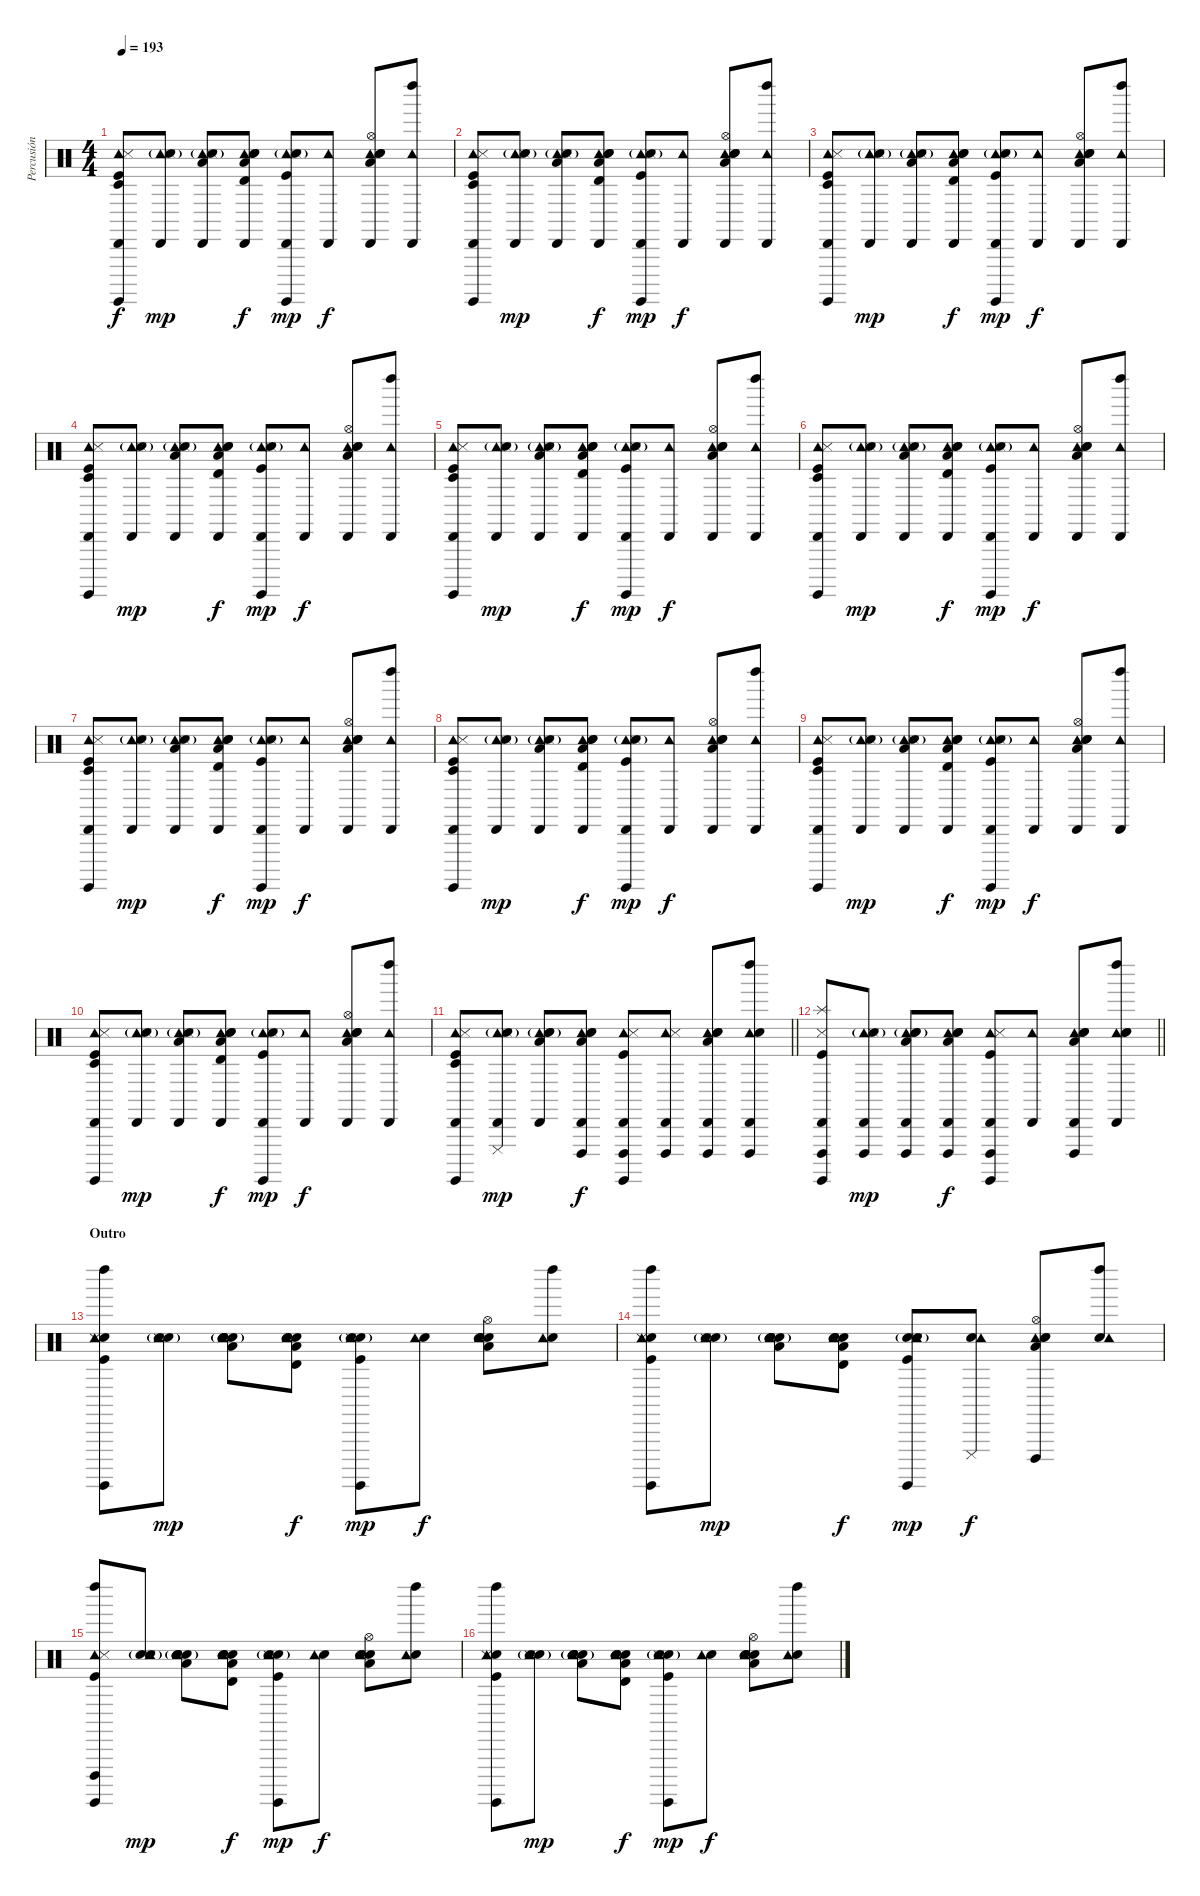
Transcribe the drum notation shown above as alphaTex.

\track ("Percusión" "Percusión") {instrument percussion}
\staff {score}
\articulation defaults
\ts (4 4)
\tempo 193
\clef neutral
\ks c
("Cabasa (hit)" "Tambourine (hit)" "Timbale low (hit)" "Metronome (hit)" "Surdo (hit)" "Kick (hit)").8{dy f} ("Cabasa (hit)" "Tambourine (hit)" "Hand Clap (hit)"{g} "Metronome (hit)").8{dy mp} ("Cabasa (hit)" "Tambourine (hit)" "Hand Clap (hit)"{g} "Metronome (hit)" "Low Tom (hit)").8 ("Cabasa (hit)" "Tambourine (hit)" "Timbale high (hit)" "Snare (hit) 2" "Low Tom (hit)" "Electric Snare (hit)").8{dy f} ("Cabasa (hit)" "Tambourine (hit)" "Hand Clap (hit)"{g} "Metronome (hit)" "Surdo (hit)" "Kick (hit)").8{dy mp} ("Cabasa (hit)" "Tambourine (hit)").8{dy f} ("Cabasa (hit)" "Tambourine (hit)" "Hi-Hat (open)" "Snare (hit) 2" "Low Tom (hit)" "Electric Snare (hit)").8 ("Cabasa (hit)" "Tambourine (hit)" "Left Maraca (hit)").8 |
("Cabasa (hit)" "Tambourine (hit)" "Timbale low (hit)" "Metronome (hit)" "Surdo (hit)" "Kick (hit)").8 ("Cabasa (hit)" "Tambourine (hit)" "Hand Clap (hit)"{g} "Metronome (hit)").8{dy mp} ("Cabasa (hit)" "Tambourine (hit)" "Hand Clap (hit)"{g} "Metronome (hit)" "Low Tom (hit)").8 ("Cabasa (hit)" "Tambourine (hit)" "Timbale high (hit)" "Snare (hit) 2" "Low Tom (hit)" "Electric Snare (hit)").8{dy f} ("Cabasa (hit)" "Tambourine (hit)" "Hand Clap (hit)"{g} "Metronome (hit)" "Surdo (hit)" "Kick (hit)").8{dy mp} ("Cabasa (hit)" "Tambourine (hit)").8{dy f} ("Cabasa (hit)" "Tambourine (hit)" "Hi-Hat (open)" "Snare (hit) 2" "Low Tom (hit)" "Electric Snare (hit)").8 ("Cabasa (hit)" "Tambourine (hit)" "Left Maraca (hit)").8 |
("Cabasa (hit)" "Tambourine (hit)" "Timbale low (hit)" "Metronome (hit)" "Surdo (hit)" "Kick (hit)").8 ("Cabasa (hit)" "Tambourine (hit)" "Hand Clap (hit)"{g} "Metronome (hit)").8{dy mp} ("Cabasa (hit)" "Tambourine (hit)" "Hand Clap (hit)"{g} "Metronome (hit)" "Low Tom (hit)").8 ("Cabasa (hit)" "Tambourine (hit)" "Timbale high (hit)" "Snare (hit) 2" "Low Tom (hit)" "Electric Snare (hit)").8{dy f} ("Cabasa (hit)" "Tambourine (hit)" "Hand Clap (hit)"{g} "Metronome (hit)" "Surdo (hit)" "Kick (hit)").8{dy mp} ("Cabasa (hit)" "Tambourine (hit)").8{dy f} ("Cabasa (hit)" "Tambourine (hit)" "Hi-Hat (open)" "Snare (hit) 2" "Low Tom (hit)" "Electric Snare (hit)").8 ("Cabasa (hit)" "Tambourine (hit)" "Left Maraca (hit)").8 |
("Cabasa (hit)" "Tambourine (hit)" "Timbale low (hit)" "Metronome (hit)" "Surdo (hit)" "Kick (hit)").8 ("Cabasa (hit)" "Tambourine (hit)" "Hand Clap (hit)"{g} "Metronome (hit)").8{dy mp} ("Cabasa (hit)" "Tambourine (hit)" "Hand Clap (hit)"{g} "Metronome (hit)" "Low Tom (hit)").8 ("Cabasa (hit)" "Tambourine (hit)" "Timbale high (hit)" "Snare (hit) 2" "Low Tom (hit)" "Electric Snare (hit)").8{dy f} ("Cabasa (hit)" "Tambourine (hit)" "Hand Clap (hit)"{g} "Metronome (hit)" "Surdo (hit)" "Kick (hit)").8{dy mp} ("Cabasa (hit)" "Tambourine (hit)").8{dy f} ("Cabasa (hit)" "Tambourine (hit)" "Hi-Hat (open)" "Snare (hit) 2" "Low Tom (hit)" "Electric Snare (hit)").8 ("Cabasa (hit)" "Tambourine (hit)" "Left Maraca (hit)").8 |
("Cabasa (hit)" "Tambourine (hit)" "Timbale low (hit)" "Metronome (hit)" "Surdo (hit)" "Kick (hit)").8 ("Cabasa (hit)" "Tambourine (hit)" "Hand Clap (hit)"{g} "Metronome (hit)").8{dy mp} ("Cabasa (hit)" "Tambourine (hit)" "Hand Clap (hit)"{g} "Metronome (hit)" "Low Tom (hit)").8 ("Cabasa (hit)" "Tambourine (hit)" "Timbale high (hit)" "Snare (hit) 2" "Low Tom (hit)" "Electric Snare (hit)").8{dy f} ("Cabasa (hit)" "Tambourine (hit)" "Hand Clap (hit)"{g} "Metronome (hit)" "Surdo (hit)" "Kick (hit)").8{dy mp} ("Cabasa (hit)" "Tambourine (hit)").8{dy f} ("Cabasa (hit)" "Tambourine (hit)" "Hi-Hat (open)" "Snare (hit) 2" "Low Tom (hit)" "Electric Snare (hit)").8 ("Cabasa (hit)" "Tambourine (hit)" "Left Maraca (hit)").8 |
("Cabasa (hit)" "Tambourine (hit)" "Timbale low (hit)" "Metronome (hit)" "Surdo (hit)" "Kick (hit)").8 ("Cabasa (hit)" "Tambourine (hit)" "Hand Clap (hit)"{g} "Metronome (hit)").8{dy mp} ("Cabasa (hit)" "Tambourine (hit)" "Hand Clap (hit)"{g} "Metronome (hit)" "Low Tom (hit)").8 ("Cabasa (hit)" "Tambourine (hit)" "Timbale high (hit)" "Snare (hit) 2" "Low Tom (hit)" "Electric Snare (hit)").8{dy f} ("Cabasa (hit)" "Tambourine (hit)" "Hand Clap (hit)"{g} "Metronome (hit)" "Surdo (hit)" "Kick (hit)").8{dy mp} ("Cabasa (hit)" "Tambourine (hit)").8{dy f} ("Cabasa (hit)" "Tambourine (hit)" "Hi-Hat (open)" "Snare (hit) 2" "Low Tom (hit)" "Electric Snare (hit)").8 ("Cabasa (hit)" "Tambourine (hit)" "Left Maraca (hit)").8 |
("Cabasa (hit)" "Tambourine (hit)" "Timbale low (hit)" "Metronome (hit)" "Surdo (hit)" "Kick (hit)").8 ("Cabasa (hit)" "Tambourine (hit)" "Hand Clap (hit)"{g} "Metronome (hit)").8{dy mp} ("Cabasa (hit)" "Tambourine (hit)" "Hand Clap (hit)"{g} "Metronome (hit)" "Low Tom (hit)").8 ("Cabasa (hit)" "Tambourine (hit)" "Timbale high (hit)" "Snare (hit) 2" "Low Tom (hit)" "Electric Snare (hit)").8{dy f} ("Cabasa (hit)" "Tambourine (hit)" "Hand Clap (hit)"{g} "Metronome (hit)" "Surdo (hit)" "Kick (hit)").8{dy mp} ("Cabasa (hit)" "Tambourine (hit)").8{dy f} ("Cabasa (hit)" "Tambourine (hit)" "Hi-Hat (open)" "Snare (hit) 2" "Low Tom (hit)" "Electric Snare (hit)").8 ("Cabasa (hit)" "Tambourine (hit)" "Left Maraca (hit)").8 |
("Cabasa (hit)" "Tambourine (hit)" "Timbale low (hit)" "Metronome (hit)" "Surdo (hit)" "Kick (hit)").8 ("Cabasa (hit)" "Tambourine (hit)" "Hand Clap (hit)"{g} "Metronome (hit)").8{dy mp} ("Cabasa (hit)" "Tambourine (hit)" "Hand Clap (hit)"{g} "Metronome (hit)" "Low Tom (hit)").8 ("Cabasa (hit)" "Tambourine (hit)" "Timbale high (hit)" "Snare (hit) 2" "Low Tom (hit)" "Electric Snare (hit)").8{dy f} ("Cabasa (hit)" "Tambourine (hit)" "Hand Clap (hit)"{g} "Metronome (hit)" "Surdo (hit)" "Kick (hit)").8{dy mp} ("Cabasa (hit)" "Tambourine (hit)").8{dy f} ("Cabasa (hit)" "Tambourine (hit)" "Hi-Hat (open)" "Snare (hit) 2" "Low Tom (hit)" "Electric Snare (hit)").8 ("Cabasa (hit)" "Tambourine (hit)" "Left Maraca (hit)").8 |
("Cabasa (hit)" "Tambourine (hit)" "Timbale low (hit)" "Metronome (hit)" "Surdo (hit)" "Kick (hit)").8 ("Cabasa (hit)" "Tambourine (hit)" "Hand Clap (hit)"{g} "Metronome (hit)").8{dy mp} ("Cabasa (hit)" "Tambourine (hit)" "Hand Clap (hit)"{g} "Metronome (hit)" "Low Tom (hit)").8 ("Cabasa (hit)" "Tambourine (hit)" "Timbale high (hit)" "Snare (hit) 2" "Low Tom (hit)" "Electric Snare (hit)").8{dy f} ("Cabasa (hit)" "Tambourine (hit)" "Hand Clap (hit)"{g} "Metronome (hit)" "Surdo (hit)" "Kick (hit)").8{dy mp} ("Cabasa (hit)" "Tambourine (hit)").8{dy f} ("Cabasa (hit)" "Tambourine (hit)" "Hi-Hat (open)" "Snare (hit) 2" "Low Tom (hit)" "Electric Snare (hit)").8 ("Cabasa (hit)" "Tambourine (hit)" "Left Maraca (hit)").8 |
("Cabasa (hit)" "Tambourine (hit)" "Timbale low (hit)" "Metronome (hit)" "Surdo (hit)" "Kick (hit)").8 ("Cabasa (hit)" "Tambourine (hit)" "Hand Clap (hit)"{g} "Metronome (hit)").8{dy mp} ("Cabasa (hit)" "Tambourine (hit)" "Hand Clap (hit)"{g} "Metronome (hit)" "Low Tom (hit)").8 ("Cabasa (hit)" "Tambourine (hit)" "Timbale high (hit)" "Snare (hit) 2" "Low Tom (hit)" "Electric Snare (hit)").8{dy f} ("Cabasa (hit)" "Tambourine (hit)" "Hand Clap (hit)"{g} "Metronome (hit)" "Surdo (hit)" "Kick (hit)").8{dy mp} ("Cabasa (hit)" "Tambourine (hit)").8{dy f} ("Cabasa (hit)" "Tambourine (hit)" "Hi-Hat (open)" "Snare (hit) 2" "Low Tom (hit)" "Electric Snare (hit)").8 ("Cabasa (hit)" "Tambourine (hit)" "Left Maraca (hit)").8 |
\barLineRight lightlight
("Cabasa (hit)" "Tambourine (hit)" "Timbale low (hit)" "Metronome (hit)" "Surdo (hit)" "Kick (hit)").8 ("Cabasa (hit)" "Tambourine (hit)" "Hand Clap (hit)"{g} "Metronome (hit)" "Cuica (mute)").8{dy mp} ("Cabasa (hit)" "Tambourine (hit)" "Hand Clap (hit)"{g} "Snare (hit) 2" "Low Tom (hit)").8 ("Cabasa (hit)" "Tambourine (hit)" "Cuica (open)" "Snare (hit) 2" "Low Tom (hit)" "Electric Snare (hit)").8{dy f} ("Cabasa (hit)" "Tambourine (hit)" "Cuica (open)" "Metronome (hit)" "Surdo (hit)" "Kick (hit)").8 ("Cabasa (hit)" "Tambourine (hit)" "Cuica (open)" "Metronome (hit)").8 ("Cabasa (hit)" "Tambourine (hit)" "Cuica (open)" "Snare (hit) 2" "Low Tom (hit)" "Electric Snare (hit)").8 ("Cabasa (hit)" "Tambourine (hit)" "Left Maraca (hit)" "Cuica (open)" "Snare (hit) 2").8 |
\barLineRight lightlight
("Cabasa (hit)" "Splash (hit)" "Cuica (open)" "Metronome (hit)" "Surdo (hit)" "Kick (hit)").8 ("Cabasa (hit)" "Tambourine (hit)" "Hand Clap (hit)"{g} "Metronome (hit)" "Cuica (open)").8{dy mp} ("Cabasa (hit)" "Tambourine (hit)" "Hand Clap (hit)"{g} "Snare (hit) 2" "Low Tom (hit)" "Cuica (open)").8 ("Cabasa (hit)" "Tambourine (hit)" "Cuica (open)" "Snare (hit) 2" "Low Tom (hit)" "Electric Snare (hit)").8{dy f} ("Cabasa (hit)" "Tambourine (hit)" "Cuica (open)" "Metronome (hit)" "Surdo (hit)" "Kick (hit)").8 ("Cabasa (hit)" "Tambourine (hit)").8 ("Cabasa (hit)" "Tambourine (hit)" "Cuica (open)" "Snare (hit) 2" "Low Tom (hit)" "Electric Snare (hit)").8 ("Cabasa (hit)" "Tambourine (hit)" "Left Maraca (hit)" "Hand Clap (hit)" "Snare (hit) 2").8 |
\section ("" "Outro")
("Hand Clap (hit)" "Tambourine (hit)" "Left Maraca (hit)" "Metronome (hit)" "Surdo (hit)" "Kick (hit)").8 ("Hand Clap (hit)" "Tambourine (hit)" "Hand Clap (hit)"{g} "Metronome (hit)").8{dy mp} ("Hand Clap (hit)" "Tambourine (hit)" "Hand Clap (hit)"{g} "Snare (hit) 2" "Low Tom (hit)" "Electric Snare (hit)").8 ("Hand Clap (hit)" "Tambourine (hit)" "Timbale high (hit)" "Snare (hit) 2" "Low Tom (hit)" "Electric Snare (hit)").8{dy f} ("Hand Clap (hit)" "Tambourine (hit)" "Hand Clap (hit)"{g} "Metronome (hit)" "Surdo (hit)" "Kick (hit)").8{dy mp} ("Hand Clap (hit)" "Tambourine (hit)").8{dy f} ("Hand Clap (hit)" "Tambourine (hit)" "Hi-Hat (open)" "Snare (hit) 2" "Low Tom (hit)" "Electric Snare (hit)").8 ("Hand Clap (hit)" "Tambourine (hit)" "Left Maraca (hit)").8 |
("Hand Clap (hit)" "Tambourine (hit)" "Left Maraca (hit)" "Metronome (hit)" "Surdo (hit)" "Kick (hit)").8 ("Hand Clap (hit)" "Tambourine (hit)" "Hand Clap (hit)"{g} "Metronome (hit)").8{dy mp} ("Hand Clap (hit)" "Tambourine (hit)" "Hand Clap (hit)"{g} "Snare (hit) 2" "Low Tom (hit)" "Electric Snare (hit)").8 ("Hand Clap (hit)" "Tambourine (hit)" "Timbale high (hit)" "Snare (hit) 2" "Low Tom (hit)" "Electric Snare (hit)").8{dy f} ("Hand Clap (hit)" "Tambourine (hit)" "Hand Clap (hit)"{g} "Metronome (hit)" "Surdo (hit)" "Kick (hit)").8{dy mp} ("Hand Clap (hit)" "Tambourine (hit)" "Cuica (mute)").8{dy f} ("Cuica (open)" "Tambourine (hit)" "Hi-Hat (open)" "Snare (hit) 2" "Low Tom (hit)" "Electric Snare (hit)").8 ("Hand Clap (hit)" "Tambourine (hit)" "Left Maraca (hit)").8 |
("Cuica (open)" "Tambourine (hit)" "Left Maraca (hit)" "Metronome (hit)" "Surdo (hit)" "Kick (hit)").8 ("Hand Clap (hit)" "Tambourine (hit)" "Hand Clap (hit)"{g} "Metronome (hit)").8{dy mp} ("Hand Clap (hit)" "Tambourine (hit)" "Hand Clap (hit)"{g} "Snare (hit) 2" "Low Tom (hit)" "Electric Snare (hit)").8 ("Hand Clap (hit)" "Tambourine (hit)" "Timbale high (hit)" "Snare (hit) 2" "Low Tom (hit)" "Electric Snare (hit)").8{dy f} ("Hand Clap (hit)" "Tambourine (hit)" "Hand Clap (hit)"{g} "Metronome (hit)" "Surdo (hit)" "Kick (hit)").8{dy mp} ("Hand Clap (hit)" "Tambourine (hit)").8{dy f} ("Hand Clap (hit)" "Tambourine (hit)" "Hi-Hat (open)" "Snare (hit) 2" "Low Tom (hit)" "Electric Snare (hit)").8 ("Hand Clap (hit)" "Tambourine (hit)" "Left Maraca (hit)").8 |
("Hand Clap (hit)" "Tambourine (hit)" "Left Maraca (hit)" "Metronome (hit)" "Surdo (hit)" "Kick (hit)").8 ("Hand Clap (hit)" "Tambourine (hit)" "Hand Clap (hit)"{g} "Metronome (hit)").8{dy mp} ("Hand Clap (hit)" "Tambourine (hit)" "Hand Clap (hit)"{g} "Snare (hit) 2" "Low Tom (hit)" "Electric Snare (hit)").8 ("Hand Clap (hit)" "Tambourine (hit)" "Timbale high (hit)" "Snare (hit) 2" "Low Tom (hit)" "Electric Snare (hit)").8{dy f} ("Hand Clap (hit)" "Tambourine (hit)" "Hand Clap (hit)"{g} "Metronome (hit)" "Surdo (hit)" "Kick (hit)").8{dy mp} ("Hand Clap (hit)" "Tambourine (hit)").8{dy f} ("Hand Clap (hit)" "Tambourine (hit)" "Hi-Hat (open)" "Snare (hit) 2" "Low Tom (hit)" "Electric Snare (hit)").8 ("Hand Clap (hit)" "Tambourine (hit)" "Left Maraca (hit)").8
